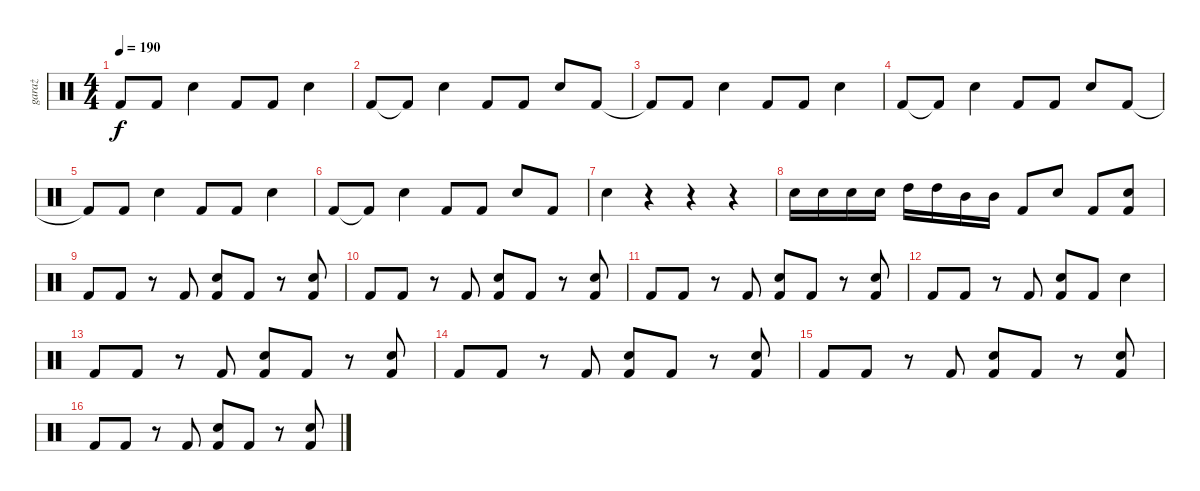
\track ("garaż" "garaż") {instrument percussion}
\staff {score}
\articulation defaults
\ts (4 4)
\tempo 190
\clef neutral
\ks c "Kick (hit) 2"{t}.8{dy f} "Kick (hit) 2".8 "Snare (hit) 2".4 "Kick (hit) 2".8 "Kick (hit) 2".8 "Snare (hit) 2".4
|
"Kick (hit) 2".8 "Kick (hit) 2"{t}.8 "Snare (hit) 2".4 "Kick (hit) 2".8 "Kick (hit) 2".8 "Snare (hit) 2".8 "Kick (hit) 2".8 |
"Kick (hit) 2"{t}.8 "Kick (hit) 2".8 "Snare (hit) 2".4 "Kick (hit) 2".8 "Kick (hit) 2".8 "Snare (hit) 2".4 |
"Kick (hit) 2".8 "Kick (hit) 2"{t}.8 "Snare (hit) 2".4 "Kick (hit) 2".8 "Kick (hit) 2".8 "Snare (hit) 2".8 "Kick (hit) 2".8 |
"Kick (hit) 2"{t}.8 "Kick (hit) 2".8 "Snare (hit) 2".4 "Kick (hit) 2".8 "Kick (hit) 2".8 "Snare (hit) 2".4 |
"Kick (hit) 2".8 "Kick (hit) 2"{t}.8 "Snare (hit) 2".4 "Kick (hit) 2".8 "Kick (hit) 2".8 "Snare (hit) 2".8 "Kick (hit) 2".8 |
"Snare (hit) 2".4 r.4 r.4 r.4 |
"Snare (hit) 2".16 "Snare (hit) 2".16 "Snare (hit) 2".16 "Snare (hit) 2".16 "High Tom (hit)".16 "High Tom (hit)".16 "Mid Tom (hit)".16 "Mid Tom (hit)".16 "Kick (hit) 2".8 "Snare (hit) 2".8 "Kick (hit) 2".8 ("Snare (hit) 2" "Kick (hit) 2").8 |
"Kick (hit) 2".8 "Kick (hit) 2".8 r.8 "Kick (hit) 2".8 ("Snare (hit) 2" "Kick (hit) 2").8 "Kick (hit) 2".8 r.8 ("Snare (hit) 2" "Kick (hit) 2").8 |
"Kick (hit) 2".8 "Kick (hit) 2".8 r.8 "Kick (hit) 2".8 ("Snare (hit) 2" "Kick (hit) 2").8 "Kick (hit) 2".8 r.8 ("Snare (hit) 2" "Kick (hit) 2").8 |
"Kick (hit) 2".8 "Kick (hit) 2".8 r.8 "Kick (hit) 2".8 ("Snare (hit) 2" "Kick (hit) 2").8 "Kick (hit) 2".8 r.8 ("Snare (hit) 2" "Kick (hit) 2").8 |
"Kick (hit) 2".8 "Kick (hit) 2".8 r.8 "Kick (hit) 2".8 ("Snare (hit) 2" "Kick (hit) 2").8 "Kick (hit) 2".8 "Snare (hit) 2".4 |
"Kick (hit) 2".8 "Kick (hit) 2".8 r.8 "Kick (hit) 2".8 ("Snare (hit) 2" "Kick (hit) 2").8 "Kick (hit) 2".8 r.8 ("Snare (hit) 2" "Kick (hit) 2").8 |
"Kick (hit) 2".8 "Kick (hit) 2".8 r.8 "Kick (hit) 2".8 ("Snare (hit) 2" "Kick (hit) 2").8 "Kick (hit) 2".8 r.8 ("Snare (hit) 2" "Kick (hit) 2").8 |
"Kick (hit) 2".8 "Kick (hit) 2".8 r.8 "Kick (hit) 2".8 ("Snare (hit) 2" "Kick (hit) 2").8 "Kick (hit) 2".8 r.8 ("Snare (hit) 2" "Kick (hit) 2").8 |
"Kick (hit) 2".8 "Kick (hit) 2".8 r.8 "Kick (hit) 2".8 ("Snare (hit) 2" "Kick (hit) 2").8 "Kick (hit) 2".8 r.8 ("Snare (hit) 2" "Kick (hit) 2").8
